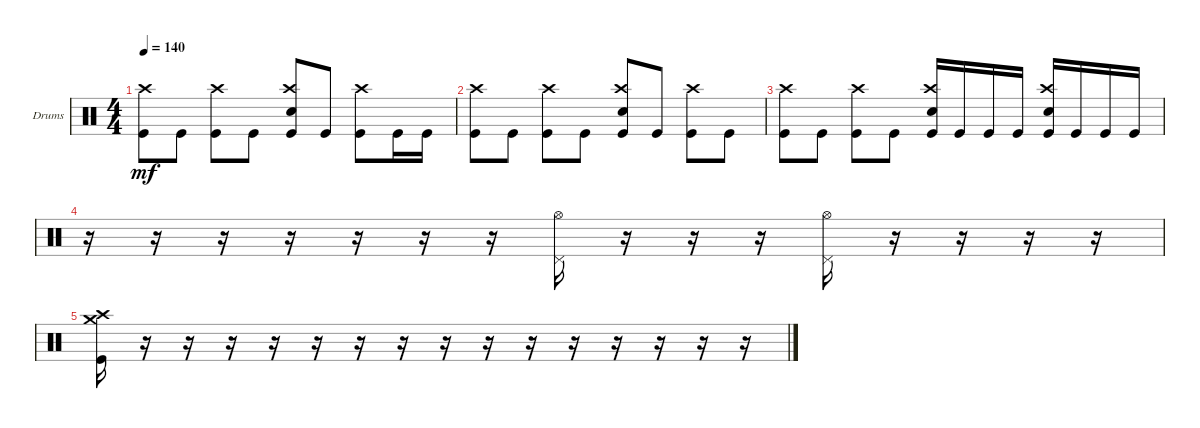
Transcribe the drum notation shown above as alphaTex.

\bracketExtendMode groupsimilarinstruments
\firstSystemTrackNameOrientation horizontal
\otherSystemsTrackNameOrientation horizontal
\track ("Drumkit" "Drums") {instrument percussion}
\staff {score}
\articulation defaults
\ts (4 4)
\tempo 140
\clef neutral
\ks c
("Kick (hit)" "Crash high (hit)").8{dy mf} "Kick (hit)".8 ("Kick (hit)" "Crash high (hit)").8 "Kick (hit)".8 ("Kick (hit)" "Snare (hit) 2" "Crash high (hit)").8 "Kick (hit)".8 ("Kick (hit)" "Crash high (hit)").8 "Kick (hit)".16 "Kick (hit)".16 |
("Kick (hit)" "Crash high (hit)").8 "Kick (hit)".8 ("Kick (hit)" "Crash high (hit)").8 "Kick (hit)".8 ("Kick (hit)" "Snare (hit) 2" "Crash high (hit)").8 "Kick (hit)".8 ("Kick (hit)" "Crash high (hit)").8 "Kick (hit)".8 |
("Kick (hit)" "Crash high (hit)").8 "Kick (hit)".8 ("Kick (hit)" "Crash high (hit)").8 "Kick (hit)".8 ("Kick (hit)" "Snare (hit) 2" "Crash high (hit)").16 "Kick (hit)".16 "Kick (hit)".16 "Kick (hit)".16 ("Kick (hit)" "Crash high (hit)" "Snare (hit) 2").16 "Kick (hit)".16 "Kick (hit)".16 "Kick (hit)".16 |
r.16 r.16 r.16 r.16 r.16 r.16 r.16 ("Pedal Hi-Hat (hit)" "Hi-Hat (open)").16 r.16 r.16 r.16 ("Hi-Hat (open)" "Pedal Hi-Hat (hit)").16 r.16 r.16 r.16 r.16 |
("Kick (hit)" "Crash medium (hit)" "Crash high (hit)").16 r.16 r.16 r.16 r.16 r.16 r.16 r.16 r.16 r.16 r.16 r.16 r.16 r.16 r.16 r.16
